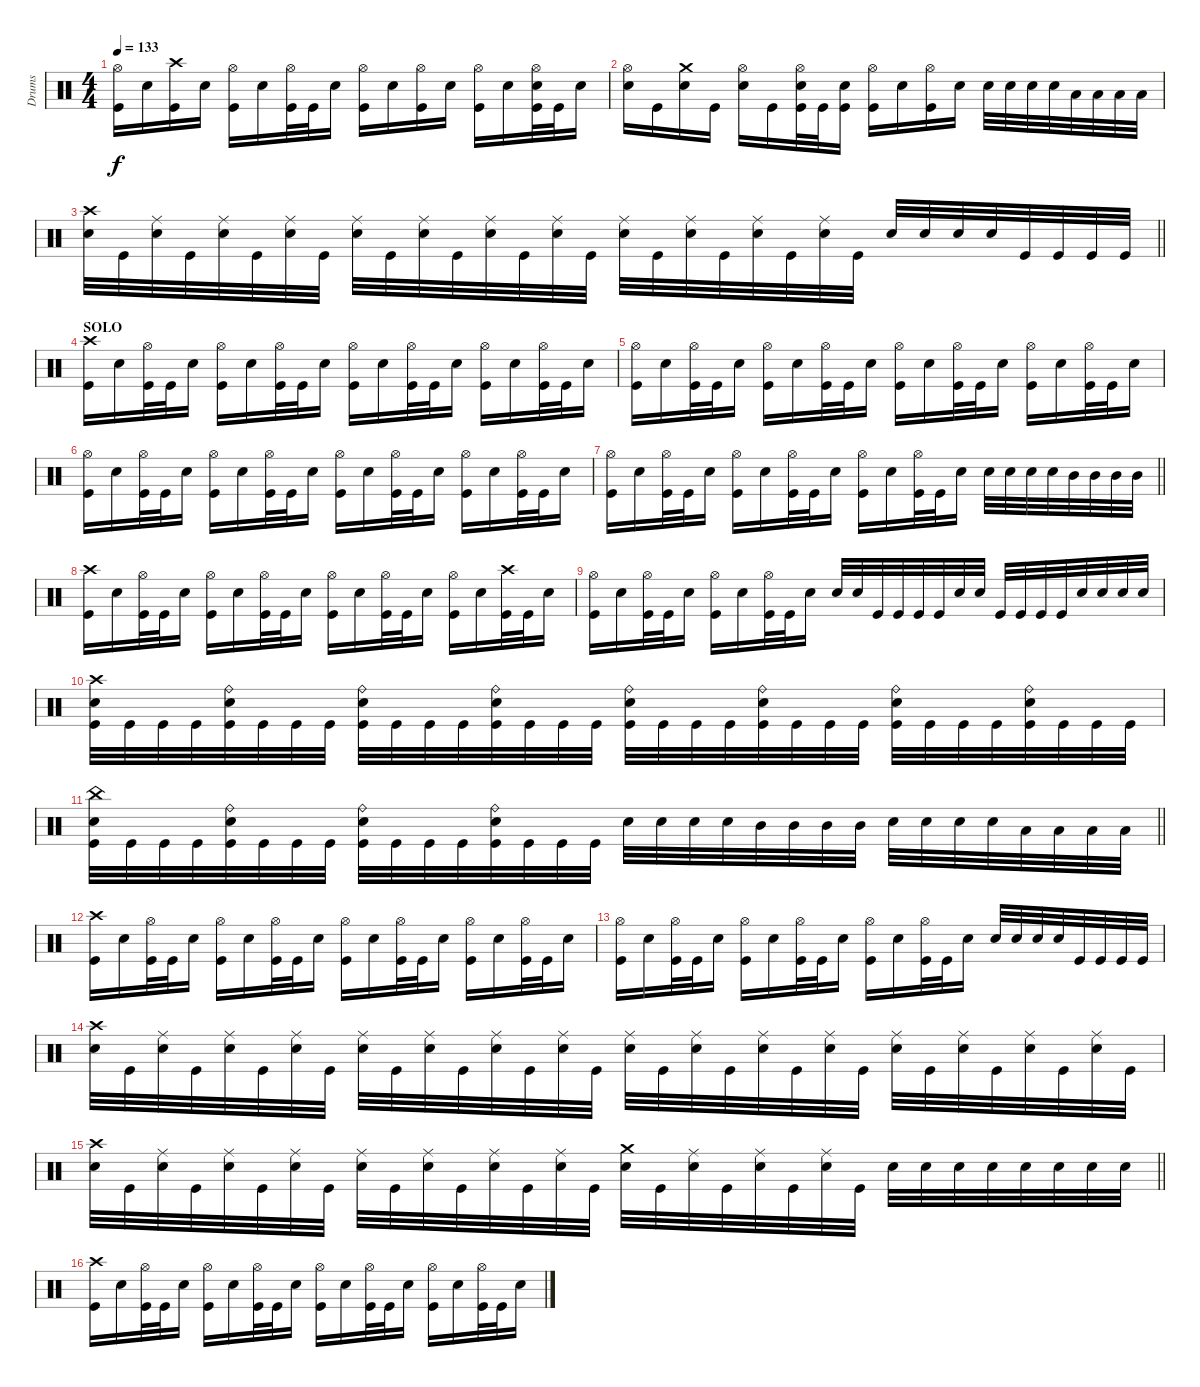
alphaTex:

\track ("Drums" "Drums") {instrument percussion}
\staff
\articulation defaults
\ts (4 4)
\tempo 133
\clef neutral
\ks c
("Hi-Hat (open)" "Kick (hit)").16{dy f} "Electric Snare (hit)".16 ("Crash high (hit)" "Kick (hit)").16 "Electric Snare (hit)".16 ("Hi-Hat (open)" "Kick (hit)").16 "Electric Snare (hit)".16 ("Hi-Hat (open)" "Kick (hit)").32 "Kick (hit)".32 "Electric Snare (hit)".16 ("Hi-Hat (open)" "Kick (hit)").16 "Electric Snare (hit)".16 ("Hi-Hat (open)" "Kick (hit)").16 "Electric Snare (hit)".16 ("Hi-Hat (open)" "Kick (hit)").16 "Electric Snare (hit)".16 ("Hi-Hat (open)" "Electric Snare (hit)" "Kick (hit)").32 "Kick (hit)".32 "Electric Snare (hit)".16 |
("Hi-Hat (open)" "Electric Snare (hit)").16 "Kick (hit)".16 ("Crash medium (hit)" "Electric Snare (hit)").16 "Kick (hit)".16 ("Hi-Hat (open)" "Electric Snare (hit)").16 "Kick (hit)".16 ("Hi-Hat (open)" "Electric Snare (hit)" "Kick (hit)").32 "Kick (hit)".32 ("Electric Snare (hit)" "Kick (hit)").16 ("Hi-Hat (open)" "Kick (hit)").16 "Electric Snare (hit)".16 ("Hi-Hat (open)" "Kick (hit)").16 "Electric Snare (hit)".16 "Electric Snare (hit)".32 "Electric Snare (hit)".32 "Electric Snare (hit)".32 "Electric Snare (hit)".32 "Low Tom (hit)".32 "Low Tom (hit)".32 "Low Tom (hit)".32 "Low Tom (hit)".32 |
\barLineRight lightlight
("Crash high (hit)" "Electric Snare (hit)").32 "Kick (hit)".32 ("Ride (middle)" "Electric Snare (hit)").32 "Kick (hit)".32 ("Ride (middle)" "Electric Snare (hit)").32 "Kick (hit)".32 ("Ride (middle)" "Electric Snare (hit)").32 "Kick (hit)".32 ("Ride (middle)" "Electric Snare (hit)").32 "Kick (hit)".32 ("Ride (middle)" "Electric Snare (hit)").32 "Kick (hit)".32 ("Ride (middle)" "Electric Snare (hit)").32 "Kick (hit)".32 ("Ride (middle)" "Electric Snare (hit)").32 "Kick (hit)".32 ("Ride (middle)" "Electric Snare (hit)").32 "Kick (hit)".32 ("Ride (middle)" "Electric Snare (hit)").32 "Kick (hit)".32 ("Ride (middle)" "Electric Snare (hit)").32 "Kick (hit)".32 ("Ride (middle)" "Electric Snare (hit)").32 "Kick (hit)".32 "Electric Snare (hit)".32 "Electric Snare (hit)".32 "Electric Snare (hit)".32 "Electric Snare (hit)".32 "Kick (hit)".32 "Kick (hit)".32 "Kick (hit)".32 "Kick (hit)".32 |
\section ("" "SOLO")
("Crash high (hit)" "Kick (hit)").16 "Electric Snare (hit)".16 ("Hi-Hat (open)" "Kick (hit)").32 "Kick (hit)".32 "Electric Snare (hit)".16 ("Hi-Hat (open)" "Kick (hit)").16 "Electric Snare (hit)".16 ("Hi-Hat (open)" "Kick (hit)").32 "Kick (hit)".32 "Electric Snare (hit)".16 ("Hi-Hat (open)" "Kick (hit)").16 "Electric Snare (hit)".16 ("Hi-Hat (open)" "Kick (hit)").32 "Kick (hit)".32 "Electric Snare (hit)".16 ("Hi-Hat (open)" "Kick (hit)").16 "Electric Snare (hit)".16 ("Hi-Hat (open)" "Kick (hit)").32 "Kick (hit)".32 "Electric Snare (hit)".16 |
("Hi-Hat (open)" "Kick (hit)").16 "Electric Snare (hit)".16 ("Hi-Hat (open)" "Kick (hit)").32 "Kick (hit)".32 "Electric Snare (hit)".16 ("Hi-Hat (open)" "Kick (hit)").16 "Electric Snare (hit)".16 ("Hi-Hat (open)" "Kick (hit)").32 "Kick (hit)".32 "Electric Snare (hit)".16 ("Hi-Hat (open)" "Kick (hit)").16 "Electric Snare (hit)".16 ("Hi-Hat (open)" "Kick (hit)").32 "Kick (hit)".32 "Electric Snare (hit)".16 ("Hi-Hat (open)" "Kick (hit)").16 "Electric Snare (hit)".16 ("Hi-Hat (open)" "Kick (hit)").32 "Kick (hit)".32 "Electric Snare (hit)".16 |
("Hi-Hat (open)" "Kick (hit)").16 "Electric Snare (hit)".16 ("Hi-Hat (open)" "Kick (hit)").32 "Kick (hit)".32 "Electric Snare (hit)".16 ("Hi-Hat (open)" "Kick (hit)").16 "Electric Snare (hit)".16 ("Hi-Hat (open)" "Kick (hit)").32 "Kick (hit)".32 "Electric Snare (hit)".16 ("Hi-Hat (open)" "Kick (hit)").16 "Electric Snare (hit)".16 ("Hi-Hat (open)" "Kick (hit)").32 "Kick (hit)".32 "Electric Snare (hit)".16 ("Hi-Hat (open)" "Kick (hit)").16 "Electric Snare (hit)".16 ("Hi-Hat (open)" "Kick (hit)").32 "Kick (hit)".32 "Electric Snare (hit)".16 |
\barLineRight lightlight
("Hi-Hat (open)" "Kick (hit)").16 "Electric Snare (hit)".16 ("Hi-Hat (open)" "Kick (hit)").32 "Kick (hit)".32 "Electric Snare (hit)".16 ("Hi-Hat (open)" "Kick (hit)").16 "Electric Snare (hit)".16 ("Hi-Hat (open)" "Kick (hit)").32 "Kick (hit)".32 "Electric Snare (hit)".16 ("Hi-Hat (open)" "Kick (hit)").16 "Electric Snare (hit)".16 ("Hi-Hat (open)" "Kick (hit)").32 "Kick (hit)".32 "Electric Snare (hit)".16 "Electric Snare (hit)".32 "Electric Snare (hit)".32 "Electric Snare (hit)".32 "Electric Snare (hit)".32 "Mid Tom (hit)".32 "Mid Tom (hit)".32 "Mid Tom (hit)".32 "Mid Tom (hit)".32 |
("Crash high (hit)" "Kick (hit)").16 "Electric Snare (hit)".16 ("Hi-Hat (open)" "Kick (hit)").32 "Kick (hit)".32 "Electric Snare (hit)".16 ("Hi-Hat (open)" "Kick (hit)").16 "Electric Snare (hit)".16 ("Hi-Hat (open)" "Kick (hit)").32 "Kick (hit)".32 "Electric Snare (hit)".16 ("Hi-Hat (open)" "Kick (hit)").16 "Electric Snare (hit)".16 ("Hi-Hat (open)" "Kick (hit)").32 "Kick (hit)".32 "Electric Snare (hit)".16 ("Hi-Hat (open)" "Kick (hit)").16 "Electric Snare (hit)".16 ("Crash high (hit)" "Kick (hit)").32 "Kick (hit)".32 "Electric Snare (hit)".16 |
("Hi-Hat (open)" "Kick (hit)").16 "Electric Snare (hit)".16 ("Hi-Hat (open)" "Kick (hit)").32 "Kick (hit)".32 "Electric Snare (hit)".16 ("Hi-Hat (open)" "Kick (hit)").16 "Electric Snare (hit)".16 ("Hi-Hat (open)" "Kick (hit)").32 "Kick (hit)".32 "Electric Snare (hit)".16 "Electric Snare (hit)".32 "Electric Snare (hit)".32 "Kick (hit)".32 "Kick (hit)".32 "Kick (hit)".32 "Kick (hit)".32 "Electric Snare (hit)".32 "Electric Snare (hit)".32 "Kick (hit)".32 "Kick (hit)".32 "Kick (hit)".32 "Kick (hit)".32 "Electric Snare (hit)".32 "Electric Snare (hit)".32 "Electric Snare (hit)".32 "Electric Snare (hit)".32 |
("Crash high (hit)" "Electric Snare (hit)" "Kick (hit)").32 "Kick (hit)".32 "Kick (hit)".32 "Kick (hit)".32 ("Ride (bell)" "Electric Snare (hit)" "Kick (hit)").32 "Kick (hit)".32 "Kick (hit)".32 "Kick (hit)".32 ("Ride (bell)" "Electric Snare (hit)" "Kick (hit)").32 "Kick (hit)".32 "Kick (hit)".32 "Kick (hit)".32 ("Ride (bell)" "Electric Snare (hit)" "Kick (hit)").32 "Kick (hit)".32 "Kick (hit)".32 "Kick (hit)".32 ("Ride (bell)" "Electric Snare (hit)" "Kick (hit)").32 "Kick (hit)".32 "Kick (hit)".32 "Kick (hit)".32 ("Ride (bell)" "Electric Snare (hit)" "Kick (hit)").32 "Kick (hit)".32 "Kick (hit)".32 "Kick (hit)".32 ("Ride (bell)" "Electric Snare (hit)" "Kick (hit)").32 "Kick (hit)".32 "Kick (hit)".32 "Kick (hit)".32 ("Ride (bell)" "Electric Snare (hit)" "Kick (hit)").32 "Kick (hit)".32 "Kick (hit)".32 "Kick (hit)".32 |
\barLineRight lightlight
("China (hit)" "Electric Snare (hit)" "Kick (hit)").32 "Kick (hit)".32 "Kick (hit)".32 "Kick (hit)".32 ("Ride (bell)" "Electric Snare (hit)" "Kick (hit)").32 "Kick (hit)".32 "Kick (hit)".32 "Kick (hit)".32 ("Ride (bell)" "Electric Snare (hit)" "Kick (hit)").32 "Kick (hit)".32 "Kick (hit)".32 "Kick (hit)".32 ("Ride (bell)" "Electric Snare (hit)" "Kick (hit)").32 "Kick (hit)".32 "Kick (hit)".32 "Kick (hit)".32 "Electric Snare (hit)".32 "Electric Snare (hit)".32 "Electric Snare (hit)".32 "Electric Snare (hit)".32 "Mid Tom (hit)".32 "Mid Tom (hit)".32 "Mid Tom (hit)".32 "Mid Tom (hit)".32 "Electric Snare (hit)".32 "Electric Snare (hit)".32 "Electric Snare (hit)".32 "Electric Snare (hit)".32 "Low Tom (hit)".32 "Low Tom (hit)".32 "Low Tom (hit)".32 "Low Tom (hit)".32 |
("Crash high (hit)" "Kick (hit)").16 "Electric Snare (hit)".16 ("Hi-Hat (open)" "Kick (hit)").32 "Kick (hit)".32 "Electric Snare (hit)".16 ("Hi-Hat (open)" "Kick (hit)").16 "Electric Snare (hit)".16 ("Hi-Hat (open)" "Kick (hit)").32 "Kick (hit)".32 "Electric Snare (hit)".16 ("Hi-Hat (open)" "Kick (hit)").16 "Electric Snare (hit)".16 ("Hi-Hat (open)" "Kick (hit)").32 "Kick (hit)".32 "Electric Snare (hit)".16 ("Hi-Hat (open)" "Kick (hit)").16 "Electric Snare (hit)".16 ("Hi-Hat (open)" "Kick (hit)").32 "Kick (hit)".32 "Electric Snare (hit)".16 |
("Hi-Hat (open)" "Kick (hit)").16 "Electric Snare (hit)".16 ("Hi-Hat (open)" "Kick (hit)").32 "Kick (hit)".32 "Electric Snare (hit)".16 ("Hi-Hat (open)" "Kick (hit)").16 "Electric Snare (hit)".16 ("Hi-Hat (open)" "Kick (hit)").32 "Kick (hit)".32 "Electric Snare (hit)".16 ("Hi-Hat (open)" "Kick (hit)").16 "Electric Snare (hit)".16 ("Hi-Hat (open)" "Kick (hit)").32 "Kick (hit)".32 "Electric Snare (hit)".16 "Electric Snare (hit)".32 "Electric Snare (hit)".32 "Electric Snare (hit)".32 "Electric Snare (hit)".32 "Kick (hit)".32 "Kick (hit)".32 "Kick (hit)".32 "Kick (hit)".32 |
("Crash high (hit)" "Electric Snare (hit)").32 "Kick (hit)".32 ("Ride (middle)" "Electric Snare (hit)").32 "Kick (hit)".32 ("Ride (middle)" "Electric Snare (hit)").32 "Kick (hit)".32 ("Ride (middle)" "Electric Snare (hit)").32 "Kick (hit)".32 ("Ride (middle)" "Electric Snare (hit)").32 "Kick (hit)".32 ("Ride (middle)" "Electric Snare (hit)").32 "Kick (hit)".32 ("Ride (middle)" "Electric Snare (hit)").32 "Kick (hit)".32 ("Ride (middle)" "Electric Snare (hit)").32 "Kick (hit)".32 ("Ride (middle)" "Electric Snare (hit)").32 "Kick (hit)".32 ("Ride (middle)" "Electric Snare (hit)").32 "Kick (hit)".32 ("Ride (middle)" "Electric Snare (hit)").32 "Kick (hit)".32 ("Ride (middle)" "Electric Snare (hit)").32 "Kick (hit)".32 ("Ride (middle)" "Electric Snare (hit)").32 "Kick (hit)".32 ("Ride (middle)" "Electric Snare (hit)").32 "Kick (hit)".32 ("Ride (middle)" "Electric Snare (hit)").32 "Kick (hit)".32 ("Ride (middle)" "Electric Snare (hit)").32 "Kick (hit)".32 |
\barLineRight lightlight
("Crash high (hit)" "Electric Snare (hit)").32 "Kick (hit)".32 ("Ride (middle)" "Electric Snare (hit)").32 "Kick (hit)".32 ("Ride (middle)" "Electric Snare (hit)").32 "Kick (hit)".32 ("Ride (middle)" "Electric Snare (hit)").32 "Kick (hit)".32 ("Ride (middle)" "Electric Snare (hit)").32 "Kick (hit)".32 ("Ride (middle)" "Electric Snare (hit)").32 "Kick (hit)".32 ("Ride (middle)" "Electric Snare (hit)").32 "Kick (hit)".32 ("Ride (middle)" "Electric Snare (hit)").32 "Kick (hit)".32 ("Crash medium (hit)" "Electric Snare (hit)").32 "Kick (hit)".32 ("Ride (middle)" "Electric Snare (hit)").32 "Kick (hit)".32 ("Ride (middle)" "Electric Snare (hit)").32 "Kick (hit)".32 ("Ride (middle)" "Electric Snare (hit)").32 "Kick (hit)".32 "Electric Snare (hit)".32 "Electric Snare (hit)".32 "Electric Snare (hit)".32 "Electric Snare (hit)".32 "Electric Snare (hit)".32 "Electric Snare (hit)".32 "Electric Snare (hit)".32 "Electric Snare (hit)".32 |
("Crash high (hit)" "Kick (hit)").16 "Electric Snare (hit)".16 ("Hi-Hat (open)" "Kick (hit)").32 "Kick (hit)".32 "Electric Snare (hit)".16 ("Hi-Hat (open)" "Kick (hit)").16 "Electric Snare (hit)".16 ("Hi-Hat (open)" "Kick (hit)").32 "Kick (hit)".32 "Electric Snare (hit)".16 ("Hi-Hat (open)" "Kick (hit)").16 "Electric Snare (hit)".16 ("Hi-Hat (open)" "Kick (hit)").32 "Kick (hit)".32 "Electric Snare (hit)".16 ("Hi-Hat (open)" "Kick (hit)").16 "Electric Snare (hit)".16 ("Hi-Hat (open)" "Kick (hit)").32 "Kick (hit)".32 "Electric Snare (hit)".16
